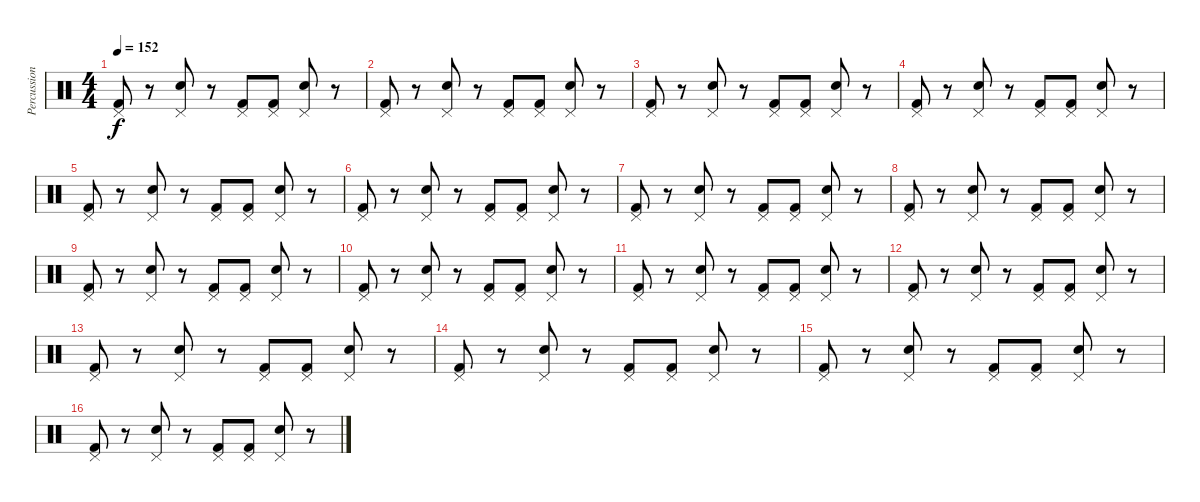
\track ("Percussion" "Percussion") {instrument percussion}
\staff {score}
\articulation defaults
\ts (4 4)
\tempo 152
\clef neutral
\ks c
("Kick (hit) 2" "Pedal Hi-Hat (hit)").8{dy f} r.8 ("Snare (hit) 2" "Pedal Hi-Hat (hit)").8 r.8 ("Kick (hit) 2" "Pedal Hi-Hat (hit)").8 ("Kick (hit) 2" "Pedal Hi-Hat (hit)").8 ("Snare (hit) 2" "Pedal Hi-Hat (hit)").8 r.8 |
("Kick (hit) 2" "Pedal Hi-Hat (hit)").8 r.8 ("Snare (hit) 2" "Pedal Hi-Hat (hit)").8 r.8 ("Kick (hit) 2" "Pedal Hi-Hat (hit)").8 ("Kick (hit) 2" "Pedal Hi-Hat (hit)").8 ("Snare (hit) 2" "Pedal Hi-Hat (hit)").8 r.8 |
("Kick (hit) 2" "Pedal Hi-Hat (hit)").8 r.8 ("Snare (hit) 2" "Pedal Hi-Hat (hit)").8 r.8 ("Kick (hit) 2" "Pedal Hi-Hat (hit)").8 ("Kick (hit) 2" "Pedal Hi-Hat (hit)").8 ("Snare (hit) 2" "Pedal Hi-Hat (hit)").8 r.8 |
("Kick (hit) 2" "Pedal Hi-Hat (hit)").8 r.8 ("Snare (hit) 2" "Pedal Hi-Hat (hit)").8 r.8 ("Kick (hit) 2" "Pedal Hi-Hat (hit)").8 ("Kick (hit) 2" "Pedal Hi-Hat (hit)").8 ("Snare (hit) 2" "Pedal Hi-Hat (hit)").8 r.8 |
("Kick (hit) 2" "Pedal Hi-Hat (hit)").8 r.8 ("Snare (hit) 2" "Pedal Hi-Hat (hit)").8 r.8 ("Kick (hit) 2" "Pedal Hi-Hat (hit)").8 ("Kick (hit) 2" "Pedal Hi-Hat (hit)").8 ("Snare (hit) 2" "Pedal Hi-Hat (hit)").8 r.8 |
("Kick (hit) 2" "Pedal Hi-Hat (hit)").8 r.8 ("Snare (hit) 2" "Pedal Hi-Hat (hit)").8 r.8 ("Kick (hit) 2" "Pedal Hi-Hat (hit)").8 ("Kick (hit) 2" "Pedal Hi-Hat (hit)").8 ("Snare (hit) 2" "Pedal Hi-Hat (hit)").8 r.8 |
("Kick (hit) 2" "Pedal Hi-Hat (hit)").8 r.8 ("Snare (hit) 2" "Pedal Hi-Hat (hit)").8 r.8 ("Kick (hit) 2" "Pedal Hi-Hat (hit)").8 ("Kick (hit) 2" "Pedal Hi-Hat (hit)").8 ("Snare (hit) 2" "Pedal Hi-Hat (hit)").8 r.8 |
("Kick (hit) 2" "Pedal Hi-Hat (hit)").8 r.8 ("Snare (hit) 2" "Pedal Hi-Hat (hit)").8 r.8 ("Kick (hit) 2" "Pedal Hi-Hat (hit)").8 ("Kick (hit) 2" "Pedal Hi-Hat (hit)").8 ("Snare (hit) 2" "Pedal Hi-Hat (hit)").8 r.8 |
("Kick (hit) 2" "Pedal Hi-Hat (hit)").8 r.8 ("Snare (hit) 2" "Pedal Hi-Hat (hit)").8 r.8 ("Kick (hit) 2" "Pedal Hi-Hat (hit)").8 ("Kick (hit) 2" "Pedal Hi-Hat (hit)").8 ("Snare (hit) 2" "Pedal Hi-Hat (hit)").8 r.8 |
("Kick (hit) 2" "Pedal Hi-Hat (hit)").8 r.8 ("Snare (hit) 2" "Pedal Hi-Hat (hit)").8 r.8 ("Kick (hit) 2" "Pedal Hi-Hat (hit)").8 ("Kick (hit) 2" "Pedal Hi-Hat (hit)").8 ("Snare (hit) 2" "Pedal Hi-Hat (hit)").8 r.8 |
("Kick (hit) 2" "Pedal Hi-Hat (hit)").8 r.8 ("Snare (hit) 2" "Pedal Hi-Hat (hit)").8 r.8 ("Kick (hit) 2" "Pedal Hi-Hat (hit)").8 ("Kick (hit) 2" "Pedal Hi-Hat (hit)").8 ("Snare (hit) 2" "Pedal Hi-Hat (hit)").8 r.8 |
("Kick (hit) 2" "Pedal Hi-Hat (hit)").8 r.8 ("Snare (hit) 2" "Pedal Hi-Hat (hit)").8 r.8 ("Kick (hit) 2" "Pedal Hi-Hat (hit)").8 ("Kick (hit) 2" "Pedal Hi-Hat (hit)").8 ("Snare (hit) 2" "Pedal Hi-Hat (hit)").8 r.8 |
("Kick (hit) 2" "Pedal Hi-Hat (hit)").8 r.8 ("Snare (hit) 2" "Pedal Hi-Hat (hit)").8 r.8 ("Kick (hit) 2" "Pedal Hi-Hat (hit)").8 ("Kick (hit) 2" "Pedal Hi-Hat (hit)").8 ("Snare (hit) 2" "Pedal Hi-Hat (hit)").8 r.8 |
("Kick (hit) 2" "Pedal Hi-Hat (hit)").8 r.8 ("Snare (hit) 2" "Pedal Hi-Hat (hit)").8 r.8 ("Kick (hit) 2" "Pedal Hi-Hat (hit)").8 ("Kick (hit) 2" "Pedal Hi-Hat (hit)").8 ("Snare (hit) 2" "Pedal Hi-Hat (hit)").8 r.8 |
("Kick (hit) 2" "Pedal Hi-Hat (hit)").8 r.8 ("Snare (hit) 2" "Pedal Hi-Hat (hit)").8 r.8 ("Kick (hit) 2" "Pedal Hi-Hat (hit)").8 ("Kick (hit) 2" "Pedal Hi-Hat (hit)").8 ("Snare (hit) 2" "Pedal Hi-Hat (hit)").8 r.8 |
("Kick (hit) 2" "Pedal Hi-Hat (hit)").8 r.8 ("Snare (hit) 2" "Pedal Hi-Hat (hit)").8 r.8 ("Kick (hit) 2" "Pedal Hi-Hat (hit)").8 ("Kick (hit) 2" "Pedal Hi-Hat (hit)").8 ("Snare (hit) 2" "Pedal Hi-Hat (hit)").8 r.8
